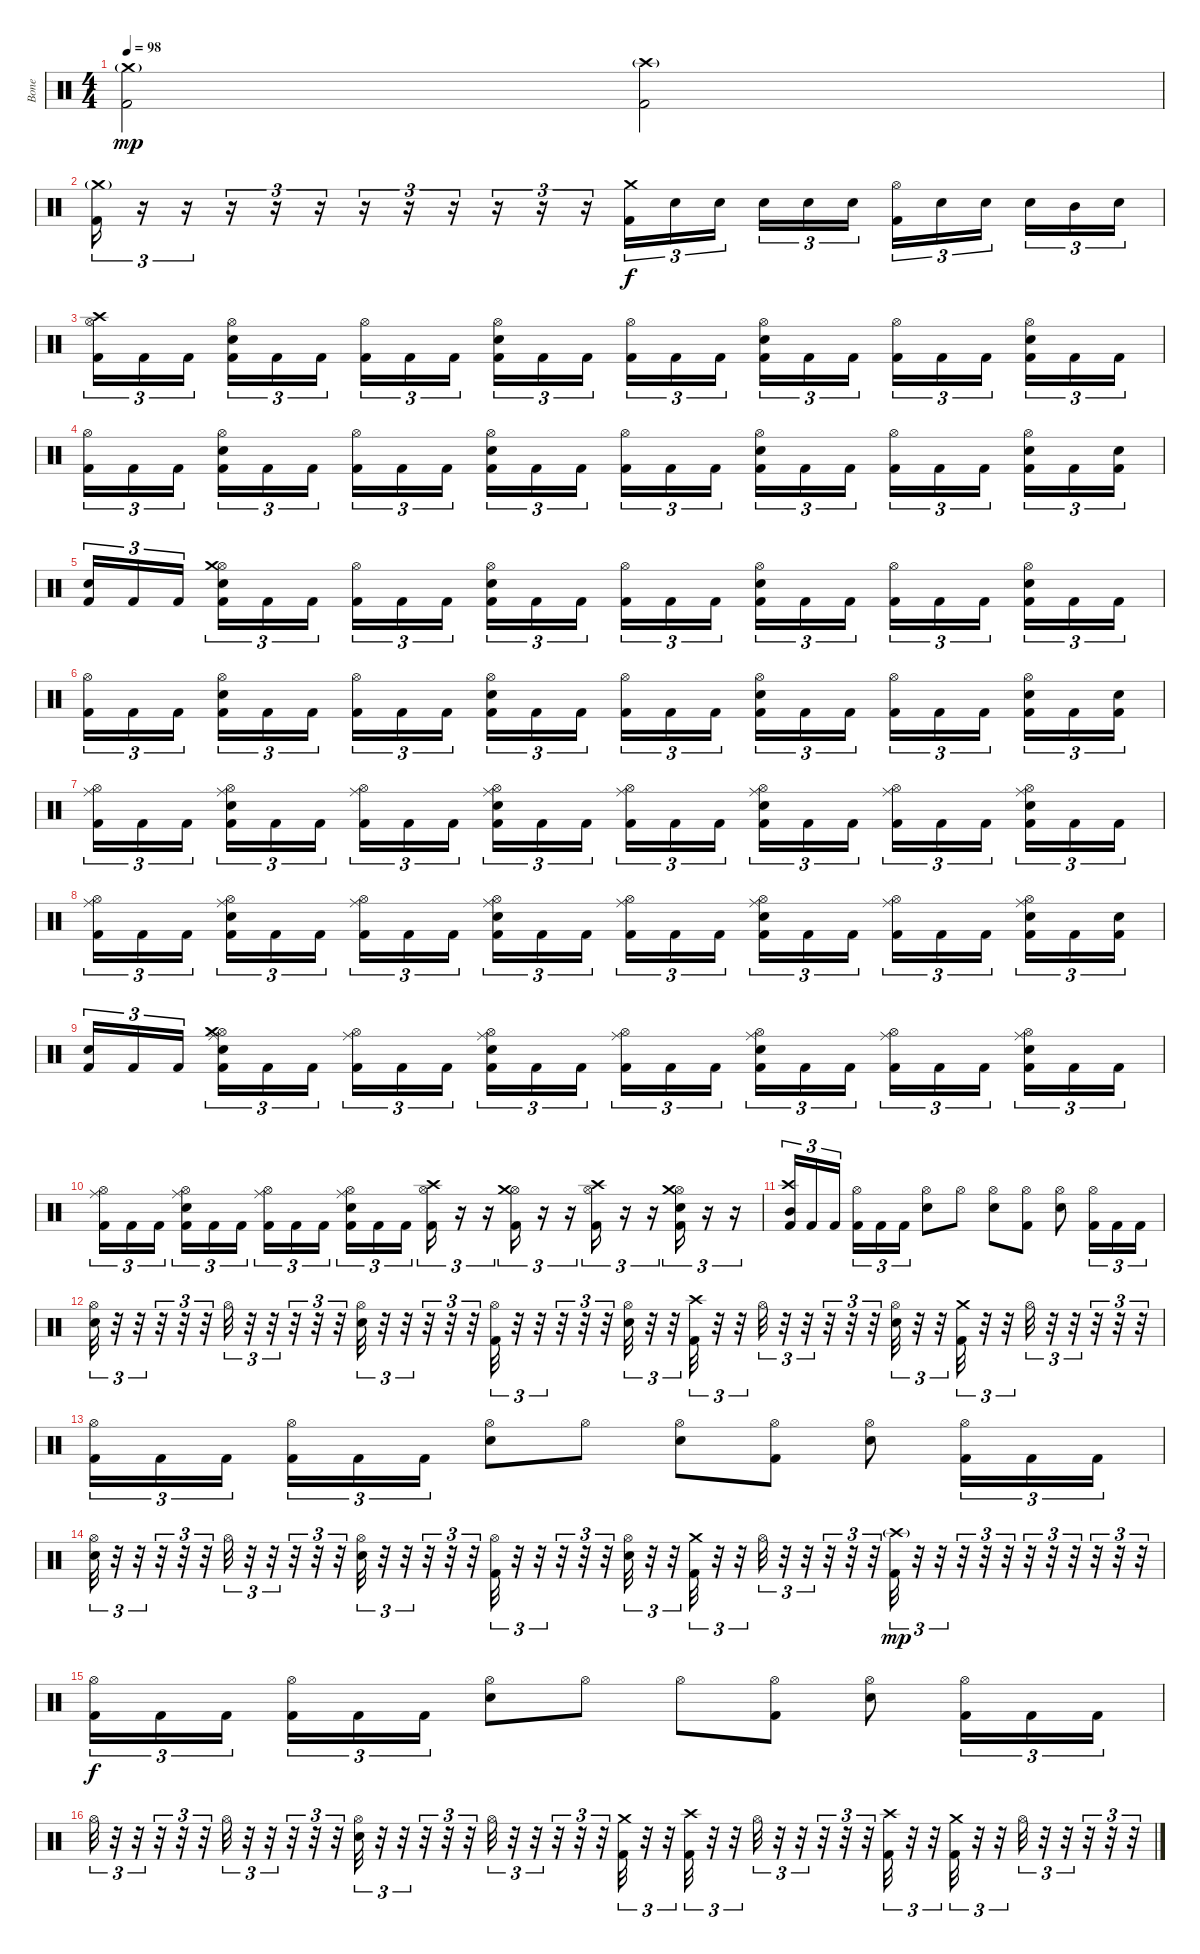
\track ("Bone " "Bone ") {instrument percussion}
\staff {score}
\articulation defaults
\ts (4 4)
\tempo 98
\clef neutral
\ks c
("Crash medium (hit)"{g} "Kick (hit) 2").2{dy mp} ("Crash high (hit)"{g} "Kick (hit) 2").2 |
("Crash medium (hit)"{g} "Kick (hit) 2").16{tu (3 2)} r.16{tu (3 2)} r.16{tu (3 2)} r.16{tu (3 2)} r.16{tu (3 2)} r.16{tu (3 2)} r.16{tu (3 2)} r.16{tu (3 2)} r.16{tu (3 2)} r.16{tu (3 2)} r.16{tu (3 2)} r.16{tu (3 2)} ("Crash medium (hit)" "Kick (hit) 2").16{tu (3 2) dy f} "Electric Snare (hit)".16{tu (3 2)} "Electric Snare (hit)".16{tu (3 2) beam splitsecondary} "Electric Snare (hit)".16{tu (3 2)} "Electric Snare (hit)".16{tu (3 2)} "Electric Snare (hit)".16{tu (3 2)} ("Hi-Hat (open)" "Kick (hit) 2").16{tu (3 2)} "Electric Snare (hit)".16{tu (3 2)} "Electric Snare (hit)".16{tu (3 2) beam splitsecondary} "Electric Snare (hit)".16{tu (3 2)} "Mid Tom (hit)".16{tu (3 2)} "Electric Snare (hit)".16{tu (3 2)} |
("Hi-Hat (open)" "Crash high (hit)" "Kick (hit) 2").16{tu (3 2)} "Kick (hit) 2".16{tu (3 2)} "Kick (hit) 2".16{tu (3 2) beam splitsecondary} ("Hi-Hat (open)" "Electric Snare (hit)" "Kick (hit) 2").16{tu (3 2)} "Kick (hit) 2".16{tu (3 2)} "Kick (hit) 2".16{tu (3 2)} ("Hi-Hat (open)" "Kick (hit) 2").16{tu (3 2)} "Kick (hit) 2".16{tu (3 2)} "Kick (hit) 2".16{tu (3 2) beam splitsecondary} ("Hi-Hat (open)" "Electric Snare (hit)" "Kick (hit) 2").16{tu (3 2)} "Kick (hit) 2".16{tu (3 2)} "Kick (hit) 2".16{tu (3 2)} ("Hi-Hat (open)" "Kick (hit) 2").16{tu (3 2)} "Kick (hit) 2".16{tu (3 2)} "Kick (hit) 2".16{tu (3 2) beam splitsecondary} ("Hi-Hat (open)" "Electric Snare (hit)" "Kick (hit) 2").16{tu (3 2)} "Kick (hit) 2".16{tu (3 2)} "Kick (hit) 2".16{tu (3 2)} ("Hi-Hat (open)" "Kick (hit) 2").16{tu (3 2)} "Kick (hit) 2".16{tu (3 2)} "Kick (hit) 2".16{tu (3 2) beam splitsecondary} ("Hi-Hat (open)" "Electric Snare (hit)" "Kick (hit) 2").16{tu (3 2)} "Kick (hit) 2".16{tu (3 2)} "Kick (hit) 2".16{tu (3 2)} |
("Hi-Hat (open)" "Kick (hit) 2").16{tu (3 2)} "Kick (hit) 2".16{tu (3 2)} "Kick (hit) 2".16{tu (3 2) beam splitsecondary} ("Hi-Hat (open)" "Electric Snare (hit)" "Kick (hit) 2").16{tu (3 2)} "Kick (hit) 2".16{tu (3 2)} "Kick (hit) 2".16{tu (3 2)} ("Hi-Hat (open)" "Kick (hit) 2").16{tu (3 2)} "Kick (hit) 2".16{tu (3 2)} "Kick (hit) 2".16{tu (3 2) beam splitsecondary} ("Hi-Hat (open)" "Electric Snare (hit)" "Kick (hit) 2").16{tu (3 2)} "Kick (hit) 2".16{tu (3 2)} "Kick (hit) 2".16{tu (3 2)} ("Hi-Hat (open)" "Kick (hit) 2").16{tu (3 2)} "Kick (hit) 2".16{tu (3 2)} "Kick (hit) 2".16{tu (3 2) beam splitsecondary} ("Hi-Hat (open)" "Electric Snare (hit)" "Kick (hit) 2").16{tu (3 2)} "Kick (hit) 2".16{tu (3 2)} "Kick (hit) 2".16{tu (3 2)} ("Hi-Hat (open)" "Kick (hit) 2").16{tu (3 2)} "Kick (hit) 2".16{tu (3 2)} "Kick (hit) 2".16{tu (3 2) beam splitsecondary} ("Hi-Hat (open)" "Electric Snare (hit)" "Kick (hit) 2").16{tu (3 2)} "Kick (hit) 2".16{tu (3 2)} ("Electric Snare (hit)" "Kick (hit) 2").16{tu (3 2)} |
("Electric Snare (hit)" "Kick (hit) 2").16{tu (3 2)} "Kick (hit) 2".16{tu (3 2)} "Kick (hit) 2".16{tu (3 2) beam splitsecondary} ("Hi-Hat (open)" "Crash medium (hit)" "Electric Snare (hit)" "Kick (hit) 2").16{tu (3 2)} "Kick (hit) 2".16{tu (3 2)} "Kick (hit) 2".16{tu (3 2)} ("Hi-Hat (open)" "Kick (hit) 2").16{tu (3 2)} "Kick (hit) 2".16{tu (3 2)} "Kick (hit) 2".16{tu (3 2) beam splitsecondary} ("Hi-Hat (open)" "Electric Snare (hit)" "Kick (hit) 2").16{tu (3 2)} "Kick (hit) 2".16{tu (3 2)} "Kick (hit) 2".16{tu (3 2)} ("Hi-Hat (open)" "Kick (hit) 2").16{tu (3 2)} "Kick (hit) 2".16{tu (3 2)} "Kick (hit) 2".16{tu (3 2) beam splitsecondary} ("Hi-Hat (open)" "Electric Snare (hit)" "Kick (hit) 2").16{tu (3 2)} "Kick (hit) 2".16{tu (3 2)} "Kick (hit) 2".16{tu (3 2)} ("Hi-Hat (open)" "Kick (hit) 2").16{tu (3 2)} "Kick (hit) 2".16{tu (3 2)} "Kick (hit) 2".16{tu (3 2) beam splitsecondary} ("Hi-Hat (open)" "Electric Snare (hit)" "Kick (hit) 2").16{tu (3 2)} "Kick (hit) 2".16{tu (3 2)} "Kick (hit) 2".16{tu (3 2)} |
("Hi-Hat (open)" "Kick (hit) 2").16{tu (3 2)} "Kick (hit) 2".16{tu (3 2)} "Kick (hit) 2".16{tu (3 2) beam splitsecondary} ("Hi-Hat (open)" "Electric Snare (hit)" "Kick (hit) 2").16{tu (3 2)} "Kick (hit) 2".16{tu (3 2)} "Kick (hit) 2".16{tu (3 2)} ("Hi-Hat (open)" "Kick (hit) 2").16{tu (3 2)} "Kick (hit) 2".16{tu (3 2)} "Kick (hit) 2".16{tu (3 2) beam splitsecondary} ("Hi-Hat (open)" "Electric Snare (hit)" "Kick (hit) 2").16{tu (3 2)} "Kick (hit) 2".16{tu (3 2)} "Kick (hit) 2".16{tu (3 2)} ("Hi-Hat (open)" "Kick (hit) 2").16{tu (3 2)} "Kick (hit) 2".16{tu (3 2)} "Kick (hit) 2".16{tu (3 2) beam splitsecondary} ("Hi-Hat (open)" "Electric Snare (hit)" "Kick (hit) 2").16{tu (3 2)} "Kick (hit) 2".16{tu (3 2)} "Kick (hit) 2".16{tu (3 2)} ("Hi-Hat (open)" "Kick (hit) 2").16{tu (3 2)} "Kick (hit) 2".16{tu (3 2)} "Kick (hit) 2".16{tu (3 2) beam splitsecondary} ("Hi-Hat (open)" "Electric Snare (hit)" "Kick (hit) 2").16{tu (3 2)} "Kick (hit) 2".16{tu (3 2)} ("Electric Snare (hit)" "Kick (hit) 2").16{tu (3 2)} |
("Hi-Hat (open)" "Ride (middle)" "Kick (hit) 2").16{tu (3 2)} "Kick (hit) 2".16{tu (3 2)} "Kick (hit) 2".16{tu (3 2) beam splitsecondary} ("Hi-Hat (open)" "Ride (middle)" "Electric Snare (hit)" "Kick (hit) 2").16{tu (3 2)} "Kick (hit) 2".16{tu (3 2)} "Kick (hit) 2".16{tu (3 2)} ("Hi-Hat (open)" "Ride (middle)" "Kick (hit) 2").16{tu (3 2)} "Kick (hit) 2".16{tu (3 2)} "Kick (hit) 2".16{tu (3 2) beam splitsecondary} ("Hi-Hat (open)" "Ride (middle)" "Electric Snare (hit)" "Kick (hit) 2").16{tu (3 2)} "Kick (hit) 2".16{tu (3 2)} "Kick (hit) 2".16{tu (3 2)} ("Hi-Hat (open)" "Ride (middle)" "Kick (hit) 2").16{tu (3 2)} "Kick (hit) 2".16{tu (3 2)} "Kick (hit) 2".16{tu (3 2) beam splitsecondary} ("Hi-Hat (open)" "Ride (middle)" "Electric Snare (hit)" "Kick (hit) 2").16{tu (3 2)} "Kick (hit) 2".16{tu (3 2)} "Kick (hit) 2".16{tu (3 2)} ("Hi-Hat (open)" "Ride (middle)" "Kick (hit) 2").16{tu (3 2)} "Kick (hit) 2".16{tu (3 2)} "Kick (hit) 2".16{tu (3 2) beam splitsecondary} ("Hi-Hat (open)" "Ride (middle)" "Electric Snare (hit)" "Kick (hit) 2").16{tu (3 2)} "Kick (hit) 2".16{tu (3 2)} "Kick (hit) 2".16{tu (3 2)} |
("Hi-Hat (open)" "Ride (middle)" "Kick (hit) 2").16{tu (3 2)} "Kick (hit) 2".16{tu (3 2)} "Kick (hit) 2".16{tu (3 2) beam splitsecondary} ("Hi-Hat (open)" "Ride (middle)" "Electric Snare (hit)" "Kick (hit) 2").16{tu (3 2)} "Kick (hit) 2".16{tu (3 2)} "Kick (hit) 2".16{tu (3 2)} ("Hi-Hat (open)" "Ride (middle)" "Kick (hit) 2").16{tu (3 2)} "Kick (hit) 2".16{tu (3 2)} "Kick (hit) 2".16{tu (3 2) beam splitsecondary} ("Hi-Hat (open)" "Ride (middle)" "Electric Snare (hit)" "Kick (hit) 2").16{tu (3 2)} "Kick (hit) 2".16{tu (3 2)} "Kick (hit) 2".16{tu (3 2)} ("Hi-Hat (open)" "Ride (middle)" "Kick (hit) 2").16{tu (3 2)} "Kick (hit) 2".16{tu (3 2)} "Kick (hit) 2".16{tu (3 2) beam splitsecondary} ("Hi-Hat (open)" "Ride (middle)" "Electric Snare (hit)" "Kick (hit) 2").16{tu (3 2)} "Kick (hit) 2".16{tu (3 2)} "Kick (hit) 2".16{tu (3 2)} ("Hi-Hat (open)" "Ride (middle)" "Kick (hit) 2").16{tu (3 2)} "Kick (hit) 2".16{tu (3 2)} "Kick (hit) 2".16{tu (3 2) beam splitsecondary} ("Hi-Hat (open)" "Ride (middle)" "Electric Snare (hit)" "Kick (hit) 2").16{tu (3 2)} "Kick (hit) 2".16{tu (3 2)} ("Electric Snare (hit)" "Kick (hit) 2").16{tu (3 2)} |
("Snare (hit) 2" "Kick (hit) 2").16{tu (3 2)} "Kick (hit) 2".16{tu (3 2)} "Kick (hit) 2".16{tu (3 2) beam splitsecondary} ("Hi-Hat (open)" "Crash medium (hit)" "Ride (middle)" "Electric Snare (hit)" "Kick (hit) 2").16{tu (3 2)} "Kick (hit) 2".16{tu (3 2)} "Kick (hit) 2".16{tu (3 2)} ("Hi-Hat (open)" "Ride (middle)" "Kick (hit) 2").16{tu (3 2)} "Kick (hit) 2".16{tu (3 2)} "Kick (hit) 2".16{tu (3 2) beam splitsecondary} ("Hi-Hat (open)" "Ride (middle)" "Electric Snare (hit)" "Kick (hit) 2").16{tu (3 2)} "Kick (hit) 2".16{tu (3 2)} "Kick (hit) 2".16{tu (3 2)} ("Hi-Hat (open)" "Ride (middle)" "Kick (hit) 2").16{tu (3 2)} "Kick (hit) 2".16{tu (3 2)} "Kick (hit) 2".16{tu (3 2) beam splitsecondary} ("Hi-Hat (open)" "Ride (middle)" "Electric Snare (hit)" "Kick (hit) 2").16{tu (3 2)} "Kick (hit) 2".16{tu (3 2)} "Kick (hit) 2".16{tu (3 2)} ("Hi-Hat (open)" "Ride (middle)" "Kick (hit) 2").16{tu (3 2)} "Kick (hit) 2".16{tu (3 2)} "Kick (hit) 2".16{tu (3 2) beam splitsecondary} ("Hi-Hat (open)" "Ride (middle)" "Electric Snare (hit)" "Kick (hit) 2").16{tu (3 2)} "Kick (hit) 2".16{tu (3 2)} "Kick (hit) 2".16{tu (3 2)} |
("Hi-Hat (open)" "Ride (middle)" "Kick (hit) 2").16{tu (3 2)} "Kick (hit) 2".16{tu (3 2)} "Kick (hit) 2".16{tu (3 2) beam splitsecondary} ("Hi-Hat (open)" "Ride (middle)" "Electric Snare (hit)" "Kick (hit) 2").16{tu (3 2)} "Kick (hit) 2".16{tu (3 2)} "Kick (hit) 2".16{tu (3 2)} ("Hi-Hat (open)" "Ride (middle)" "Kick (hit) 2").16{tu (3 2)} "Kick (hit) 2".16{tu (3 2)} "Kick (hit) 2".16{tu (3 2) beam splitsecondary} ("Hi-Hat (open)" "Ride (middle)" "Electric Snare (hit)" "Kick (hit) 2").16{tu (3 2)} "Kick (hit) 2".16{tu (3 2)} "Kick (hit) 2".16{tu (3 2)} ("Hi-Hat (open)" "Crash high (hit)" "Kick (hit) 2").16{tu (3 2)} r.16{tu (3 2)} r.16{tu (3 2)} ("Hi-Hat (open)" "Crash medium (hit)" "Kick (hit) 2").16{tu (3 2)} r.16{tu (3 2)} r.16{tu (3 2)} ("Hi-Hat (open)" "Crash high (hit)" "Kick (hit) 2").16{tu (3 2)} r.16{tu (3 2)} r.16{tu (3 2)} ("Hi-Hat (open)" "Crash medium (hit)" "Electric Snare (hit)" "Kick (hit) 2").16{tu (3 2)} r.16{tu (3 2)} r.16{tu (3 2)} |
("Mid Tom (hit)" "Crash high (hit)" "Kick (hit) 2").16{tu (3 2)} "Kick (hit) 2".16{tu (3 2)} "Kick (hit) 2".16{tu (3 2) beam splitsecondary} ("Hi-Hat (open)" "Kick (hit) 2").16{tu (3 2)} "Kick (hit) 2".16{tu (3 2)} "Kick (hit) 2".16{tu (3 2)} ("Hi-Hat (open)" "Electric Snare (hit)").8 "Hi-Hat (open)".8 ("Hi-Hat (open)" "Electric Snare (hit)").8 ("Hi-Hat (open)" "Kick (hit) 2").8 ("Hi-Hat (open)" "Electric Snare (hit)").8 ("Hi-Hat (open)" "Kick (hit) 2").16{tu (3 2)} "Kick (hit) 2".16{tu (3 2)} "Kick (hit) 2".16{tu (3 2)} |
("Hi-Hat (open)" "Electric Snare (hit)").32{tu (3 2)} r.32{tu (3 2)} r.32{tu (3 2)} r.32{tu (3 2)} r.32{tu (3 2)} r.32{tu (3 2)} "Hi-Hat (open)".32{tu (3 2)} r.32{tu (3 2)} r.32{tu (3 2)} r.32{tu (3 2)} r.32{tu (3 2)} r.32{tu (3 2)} ("Hi-Hat (open)" "Electric Snare (hit)").32{tu (3 2)} r.32{tu (3 2)} r.32{tu (3 2)} r.32{tu (3 2)} r.32{tu (3 2)} r.32{tu (3 2)} ("Hi-Hat (open)" "Kick (hit) 2").32{tu (3 2)} r.32{tu (3 2)} r.32{tu (3 2)} r.32{tu (3 2)} r.32{tu (3 2)} r.32{tu (3 2)} ("Hi-Hat (open)" "Electric Snare (hit)").32{tu (3 2)} r.32{tu (3 2)} r.32{tu (3 2)} ("Crash high (hit)" "Kick (hit) 2").32{tu (3 2)} r.32{tu (3 2)} r.32{tu (3 2)} "Hi-Hat (open)".32{tu (3 2)} r.32{tu (3 2)} r.32{tu (3 2)} r.32{tu (3 2)} r.32{tu (3 2)} r.32{tu (3 2)} ("Hi-Hat (open)" "Electric Snare (hit)").32{tu (3 2)} r.32{tu (3 2)} r.32{tu (3 2)} ("Crash medium (hit)" "Kick (hit) 2").32{tu (3 2)} r.32{tu (3 2)} r.32{tu (3 2)} "Hi-Hat (open)".32{tu (3 2)} r.32{tu (3 2)} r.32{tu (3 2)} r.32{tu (3 2)} r.32{tu (3 2)} r.32{tu (3 2)} |
("Hi-Hat (open)" "Kick (hit) 2").16{tu (3 2)} "Kick (hit) 2".16{tu (3 2)} "Kick (hit) 2".16{tu (3 2) beam splitsecondary} ("Hi-Hat (open)" "Kick (hit) 2").16{tu (3 2)} "Kick (hit) 2".16{tu (3 2)} "Kick (hit) 2".16{tu (3 2)} ("Hi-Hat (open)" "Electric Snare (hit)").8 "Hi-Hat (open)".8 ("Hi-Hat (open)" "Electric Snare (hit)").8 ("Hi-Hat (open)" "Kick (hit) 2").8 ("Hi-Hat (open)" "Electric Snare (hit)").8 ("Hi-Hat (open)" "Kick (hit) 2").16{tu (3 2)} "Kick (hit) 2".16{tu (3 2)} "Kick (hit) 2".16{tu (3 2)} |
("Hi-Hat (open)" "Electric Snare (hit)").32{tu (3 2)} r.32{tu (3 2)} r.32{tu (3 2)} r.32{tu (3 2)} r.32{tu (3 2)} r.32{tu (3 2)} "Hi-Hat (open)".32{tu (3 2)} r.32{tu (3 2)} r.32{tu (3 2)} r.32{tu (3 2)} r.32{tu (3 2)} r.32{tu (3 2)} ("Hi-Hat (open)" "Electric Snare (hit)").32{tu (3 2)} r.32{tu (3 2)} r.32{tu (3 2)} r.32{tu (3 2)} r.32{tu (3 2)} r.32{tu (3 2)} ("Hi-Hat (open)" "Kick (hit) 2").32{tu (3 2)} r.32{tu (3 2)} r.32{tu (3 2)} r.32{tu (3 2)} r.32{tu (3 2)} r.32{tu (3 2)} ("Hi-Hat (open)" "Electric Snare (hit)").32{tu (3 2)} r.32{tu (3 2)} r.32{tu (3 2)} ("Crash medium (hit)" "Kick (hit) 2").32{tu (3 2)} r.32{tu (3 2)} r.32{tu (3 2)} "Hi-Hat (open)".32{tu (3 2)} r.32{tu (3 2)} r.32{tu (3 2)} r.32{tu (3 2)} r.32{tu (3 2)} r.32{tu (3 2)} ("Crash high (hit)"{g} "Kick (hit) 2").32{tu (3 2) dy mp} r.32{tu (3 2)} r.32{tu (3 2)} r.32{tu (3 2)} r.32{tu (3 2)} r.32{tu (3 2)} r.32{tu (3 2)} r.32{tu (3 2)} r.32{tu (3 2)} r.32{tu (3 2)} r.32{tu (3 2)} r.32{tu (3 2)} |
("Hi-Hat (open)" "Kick (hit) 2").16{tu (3 2) dy f} "Kick (hit) 2".16{tu (3 2)} "Kick (hit) 2".16{tu (3 2) beam splitsecondary} ("Hi-Hat (open)" "Kick (hit) 2").16{tu (3 2)} "Kick (hit) 2".16{tu (3 2)} "Kick (hit) 2".16{tu (3 2)} ("Hi-Hat (open)" "Electric Snare (hit)").8 "Hi-Hat (open)".8 "Hi-Hat (open)".8 ("Hi-Hat (open)" "Kick (hit) 2").8 ("Hi-Hat (open)" "Electric Snare (hit)").8 ("Hi-Hat (open)" "Kick (hit) 2").16{tu (3 2)} "Kick (hit) 2".16{tu (3 2)} "Kick (hit) 2".16{tu (3 2)} |
"Hi-Hat (open)".32{tu (3 2)} r.32{tu (3 2)} r.32{tu (3 2)} r.32{tu (3 2)} r.32{tu (3 2)} r.32{tu (3 2)} "Hi-Hat (open)".32{tu (3 2)} r.32{tu (3 2)} r.32{tu (3 2)} r.32{tu (3 2)} r.32{tu (3 2)} r.32{tu (3 2)} ("Hi-Hat (open)" "Electric Snare (hit)").32{tu (3 2)} r.32{tu (3 2)} r.32{tu (3 2)} r.32{tu (3 2)} r.32{tu (3 2)} r.32{tu (3 2)} "Hi-Hat (open)".32{tu (3 2)} r.32{tu (3 2)} r.32{tu (3 2)} r.32{tu (3 2)} r.32{tu (3 2)} r.32{tu (3 2)} ("Crash medium (hit)" "Kick (hit) 2").32{tu (3 2)} r.32{tu (3 2)} r.32{tu (3 2)} ("Crash high (hit)" "Kick (hit) 2").32{tu (3 2)} r.32{tu (3 2)} r.32{tu (3 2)} "Hi-Hat (open)".32{tu (3 2)} r.32{tu (3 2)} r.32{tu (3 2)} r.32{tu (3 2)} r.32{tu (3 2)} r.32{tu (3 2)} ("Crash high (hit)" "Kick (hit) 2").32{tu (3 2)} r.32{tu (3 2)} r.32{tu (3 2)} ("Crash medium (hit)" "Kick (hit) 2").32{tu (3 2)} r.32{tu (3 2)} r.32{tu (3 2)} "Hi-Hat (open)".32{tu (3 2)} r.32{tu (3 2)} r.32{tu (3 2)} r.32{tu (3 2)} r.32{tu (3 2)} r.32{tu (3 2)}
